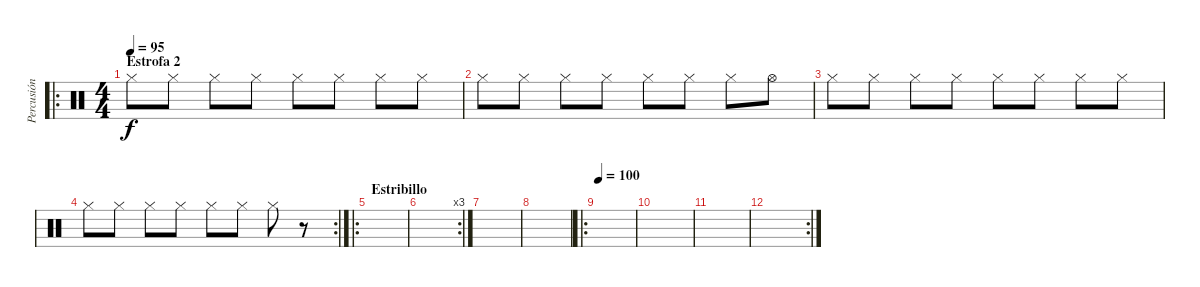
\track ("Percusión" "Percusión") {instrument percussion}
\staff {score}
\articulation defaults
\ro
\ts (4 4)
\section ("" "Estrofa 2")
\tempo 95
\clef neutral
\ks c "Hi-Hat (closed)".8{dy f} "Hi-Hat (closed)".8 "Hi-Hat (closed)".8 "Hi-Hat (closed)".8 "Hi-Hat (closed)".8 "Hi-Hat (closed)".8 "Hi-Hat (closed)".8 "Hi-Hat (closed)".8
|
"Hi-Hat (closed)".8 "Hi-Hat (closed)".8 "Hi-Hat (closed)".8 "Hi-Hat (closed)".8 "Hi-Hat (closed)".8 "Hi-Hat (closed)".8 "Hi-Hat (closed)".8 "Hi-Hat (open)".8 |
"Hi-Hat (closed)".8 "Hi-Hat (closed)".8 "Hi-Hat (closed)".8 "Hi-Hat (closed)".8 "Hi-Hat (closed)".8 "Hi-Hat (closed)".8 "Hi-Hat (closed)".8 "Hi-Hat (closed)".8 |
\rc 2 "Hi-Hat (closed)".8 "Hi-Hat (closed)".8 "Hi-Hat (closed)".8 "Hi-Hat (closed)".8 "Hi-Hat (closed)".8 "Hi-Hat (closed)".8 "Hi-Hat (closed)".8
r.8 |
\ro
\section ("" "Estribillo")
|
\rc 3
|
|
|
\ro
\tempo 100
|
|
|
\rc 2
